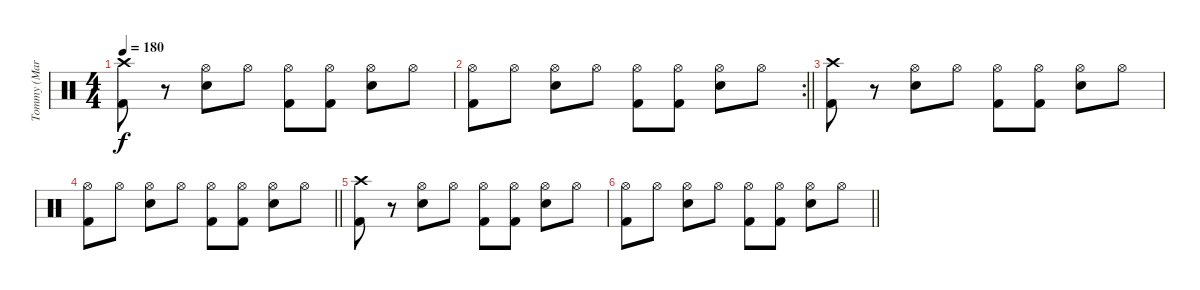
\track ("Tommy (Marky)" "Tommy (Mar") {instrument percussion}
\staff {score}
\articulation defaults
\ts (4 4)
\tempo 180
\clef neutral
\ks c
("Crash high (hit)" "Kick (hit) 2").8{dy f} r.8 ("Hi-Hat (open)" "Snare (hit) 2").8 "Hi-Hat (open)".8 ("Hi-Hat (open)" "Kick (hit) 2").8 ("Hi-Hat (open)" "Kick (hit) 2").8 ("Hi-Hat (open)" "Snare (hit) 2").8 "Hi-Hat (open)".8 |
\rc 2
\barLineRight lightlight
("Hi-Hat (open)" "Kick (hit) 2").8 "Hi-Hat (open)".8 ("Hi-Hat (open)" "Snare (hit) 2").8 "Hi-Hat (open)".8 ("Hi-Hat (open)" "Kick (hit) 2").8 ("Hi-Hat (open)" "Kick (hit) 2").8 ("Hi-Hat (open)" "Snare (hit) 2").8 "Hi-Hat (open)".8 |
("Crash high (hit)" "Kick (hit) 2").8 r.8 ("Hi-Hat (open)" "Snare (hit) 2").8 "Hi-Hat (open)".8 ("Hi-Hat (open)" "Kick (hit) 2").8 ("Hi-Hat (open)" "Kick (hit) 2").8 ("Hi-Hat (open)" "Snare (hit) 2").8 "Hi-Hat (open)".8 |
\barLineRight lightlight
("Hi-Hat (open)" "Kick (hit) 2").8 "Hi-Hat (open)".8 ("Hi-Hat (open)" "Snare (hit) 2").8 "Hi-Hat (open)".8 ("Hi-Hat (open)" "Kick (hit) 2").8 ("Hi-Hat (open)" "Kick (hit) 2").8 ("Hi-Hat (open)" "Snare (hit) 2").8 "Hi-Hat (open)".8 |
("Crash high (hit)" "Kick (hit) 2").8 r.8 ("Hi-Hat (open)" "Snare (hit) 2").8 "Hi-Hat (open)".8 ("Hi-Hat (open)" "Kick (hit) 2").8 ("Hi-Hat (open)" "Kick (hit) 2").8 ("Hi-Hat (open)" "Snare (hit) 2").8 "Hi-Hat (open)".8 |
\barLineRight lightlight
("Hi-Hat (open)" "Kick (hit) 2").8 "Hi-Hat (open)".8 ("Hi-Hat (open)" "Snare (hit) 2").8 "Hi-Hat (open)".8 ("Hi-Hat (open)" "Kick (hit) 2").8 ("Hi-Hat (open)" "Kick (hit) 2").8 ("Hi-Hat (open)" "Snare (hit) 2").8 "Hi-Hat (open)".8
